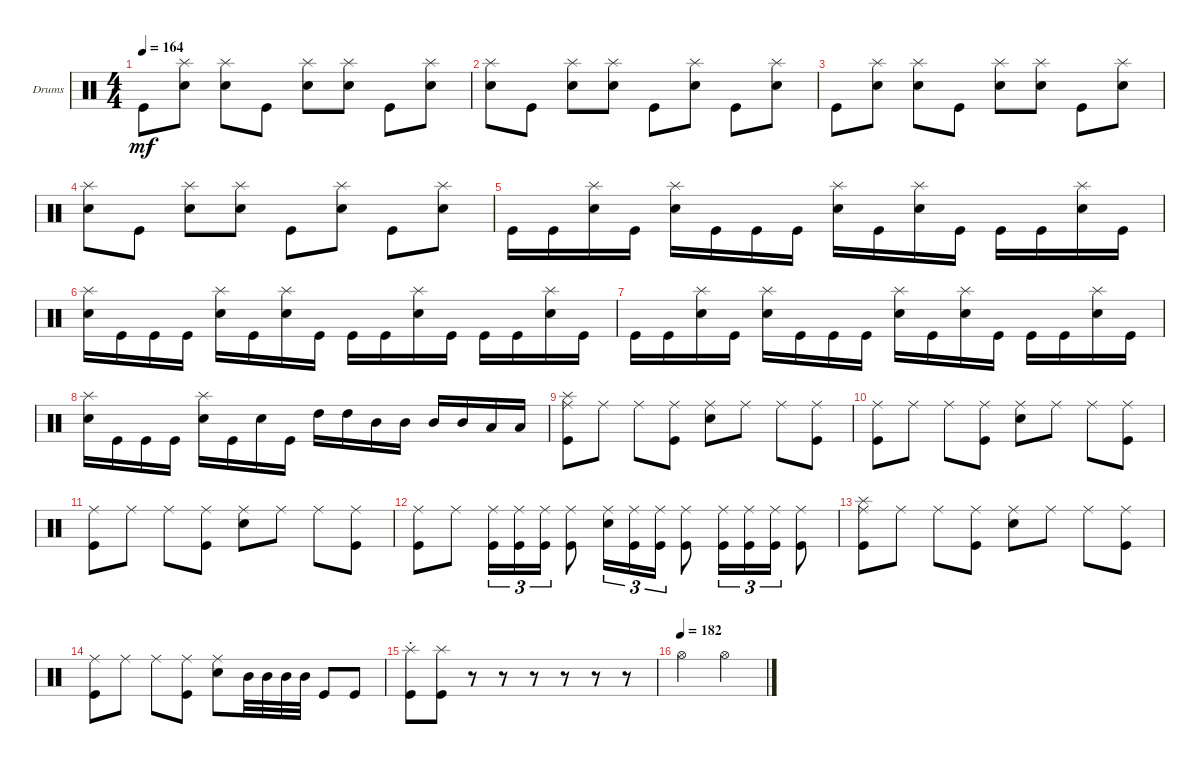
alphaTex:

\bracketExtendMode groupsimilarinstruments
\firstSystemTrackNameOrientation horizontal
\otherSystemsTrackNameOrientation horizontal
\track ("Drumkit" "Drums") {instrument percussion}
\staff {score}
\articulation defaults
\ts (4 4)
\tempo 164
\clef neutral
\ks c "Kick (hit)".8{dy mf}
("Snare (hit) 2" "Splash (hit)").8 ("Snare (hit) 2" "Splash (hit)").8 "Kick (hit)".8 ("Snare (hit) 2" "Splash (hit)").8 ("Snare (hit) 2" "Splash (hit)").8 "Kick (hit)".8 ("Snare (hit) 2" "Splash (hit)").8 |
("Snare (hit) 2" "Splash (hit)").8 "Kick (hit)".8 ("Snare (hit) 2" "Splash (hit)").8 ("Snare (hit) 2" "Splash (hit)").8 "Kick (hit)".8 ("Snare (hit) 2" "Splash (hit)").8 "Kick (hit)".8 ("Snare (hit) 2" "Splash (hit)").8 |
"Kick (hit)".8 ("Snare (hit) 2" "Splash (hit)").8 ("Snare (hit) 2" "Splash (hit)").8 "Kick (hit)".8 ("Snare (hit) 2" "Splash (hit)").8 ("Snare (hit) 2" "Splash (hit)").8 "Kick (hit)".8 ("Snare (hit) 2" "Splash (hit)").8 |
("Snare (hit) 2" "Splash (hit)").8 "Kick (hit)".8 ("Snare (hit) 2" "Splash (hit)").8 ("Snare (hit) 2" "Splash (hit)").8 "Kick (hit)".8 ("Snare (hit) 2" "Splash (hit)").8 "Kick (hit)".8 ("Snare (hit) 2" "Splash (hit)").8 |
"Kick (hit)".16 "Kick (hit)".16 ("Snare (hit) 2" "Splash (hit)").16 "Kick (hit)".16 ("Snare (hit) 2" "Splash (hit)").16 "Kick (hit)".16 "Kick (hit)".16 "Kick (hit)".16 ("Snare (hit) 2" "Splash (hit)").16 "Kick (hit)".16 ("Snare (hit) 2" "Splash (hit)").16 "Kick (hit)".16 "Kick (hit)".16 "Kick (hit)".16 ("Snare (hit) 2" "Splash (hit)").16 "Kick (hit)".16 |
("Snare (hit) 2" "Splash (hit)").16 "Kick (hit)".16 "Kick (hit)".16 "Kick (hit)".16 ("Snare (hit) 2" "Splash (hit)").16 "Kick (hit)".16 ("Snare (hit) 2" "Splash (hit)").16 "Kick (hit)".16 "Kick (hit)".16 "Kick (hit)".16 ("Snare (hit) 2" "Splash (hit)").16 "Kick (hit)".16 "Kick (hit)".16 "Kick (hit)".16 ("Snare (hit) 2" "Splash (hit)").16 "Kick (hit)".16 |
"Kick (hit)".16 "Kick (hit)".16 ("Snare (hit) 2" "Splash (hit)").16 "Kick (hit)".16 ("Snare (hit) 2" "Splash (hit)").16 "Kick (hit)".16 "Kick (hit)".16 "Kick (hit)".16 ("Snare (hit) 2" "Splash (hit)").16 "Kick (hit)".16 ("Snare (hit) 2" "Splash (hit)").16 "Kick (hit)".16 "Kick (hit)".16 "Kick (hit)".16 ("Snare (hit) 2" "Splash (hit)").16 "Kick (hit)".16 |
("Snare (hit) 2" "Splash (hit)").16 "Kick (hit)".16 "Kick (hit)".16 "Kick (hit)".16 ("Snare (hit) 2" "Splash (hit)").16 "Kick (hit)".16 "Snare (hit) 2".16 "Kick (hit)".16 "High Tom (hit)".16 "High Tom (hit)".16 "Mid Tom (hit)".16 "Mid Tom (hit)".16 "Mid Tom (hit)".16 "Mid Tom (hit)".16 "Low Tom (hit)".16 "Low Tom (hit)".16 |
("Kick (hit)" "Splash (hit)" "Ride (middle)").8 "Ride (middle)".8 "Ride (middle)".8 ("Kick (hit)" "Ride (middle)").8 ("Snare (hit) 2" "Ride (middle)").8 "Ride (middle)".8 "Ride (middle)".8 ("Kick (hit)" "Ride (middle)").8 |
("Kick (hit)" "Ride (middle)").8 "Ride (middle)".8 "Ride (middle)".8 ("Kick (hit)" "Ride (middle)").8 ("Snare (hit) 2" "Ride (middle)").8 "Ride (middle)".8 "Ride (middle)".8 ("Kick (hit)" "Ride (middle)").8 |
("Kick (hit)" "Ride (middle)").8 "Ride (middle)".8 "Ride (middle)".8 ("Kick (hit)" "Ride (middle)").8 ("Snare (hit) 2" "Ride (middle)").8 "Ride (middle)".8 "Ride (middle)".8 ("Kick (hit)" "Ride (middle)").8 |
("Kick (hit)" "Ride (middle)").8 "Ride (middle)".8 ("Kick (hit)" "Ride (middle)").16{tu (3 2)} ("Kick (hit)" "Ride (middle)").16{tu (3 2)} ("Kick (hit)" "Ride (middle)").16{tu (3 2)} ("Kick (hit)" "Ride (middle)").8 ("Snare (hit) 2" "Ride (middle)").16{tu (3 2)} ("Kick (hit)" "Ride (middle)").16{tu (3 2)} ("Kick (hit)" "Ride (middle)").16{tu (3 2)} ("Kick (hit)" "Ride (middle)").8 ("Kick (hit)" "Ride (middle)").16{tu (3 2)} ("Kick (hit)" "Ride (middle)").16{tu (3 2)} ("Kick (hit)" "Ride (middle)").16{tu (3 2)} ("Ride (middle)" "Kick (hit)").8 |
("Kick (hit)" "Splash (hit)" "Ride (middle)").8 "Ride (middle)".8 "Ride (middle)".8 ("Kick (hit)" "Ride (middle)").8 ("Snare (hit) 2" "Ride (middle)").8 "Ride (middle)".8 "Ride (middle)".8 ("Kick (hit)" "Ride (middle)").8 |
("Kick (hit)" "Ride (middle)").8 "Ride (middle)".8 "Ride (middle)".8 ("Kick (hit)" "Ride (middle)").8 ("Snare (hit) 2" "Ride (middle)").8 "Mid Tom (hit)".32 "Mid Tom (hit)".32 "Mid Tom (hit)".32 "Mid Tom (hit)".32 "Kick (hit)".8 "Kick (hit)".8 |
("Kick (hit)" "Splash (hit)"{st}).8 ("Kick (hit)" "Splash (hit)").8 r.8 r.8 r.8 r.8 r.8 r.8 |
\tempo (182)
"Hi-Hat (open)".2 "Hi-Hat (open)".2
